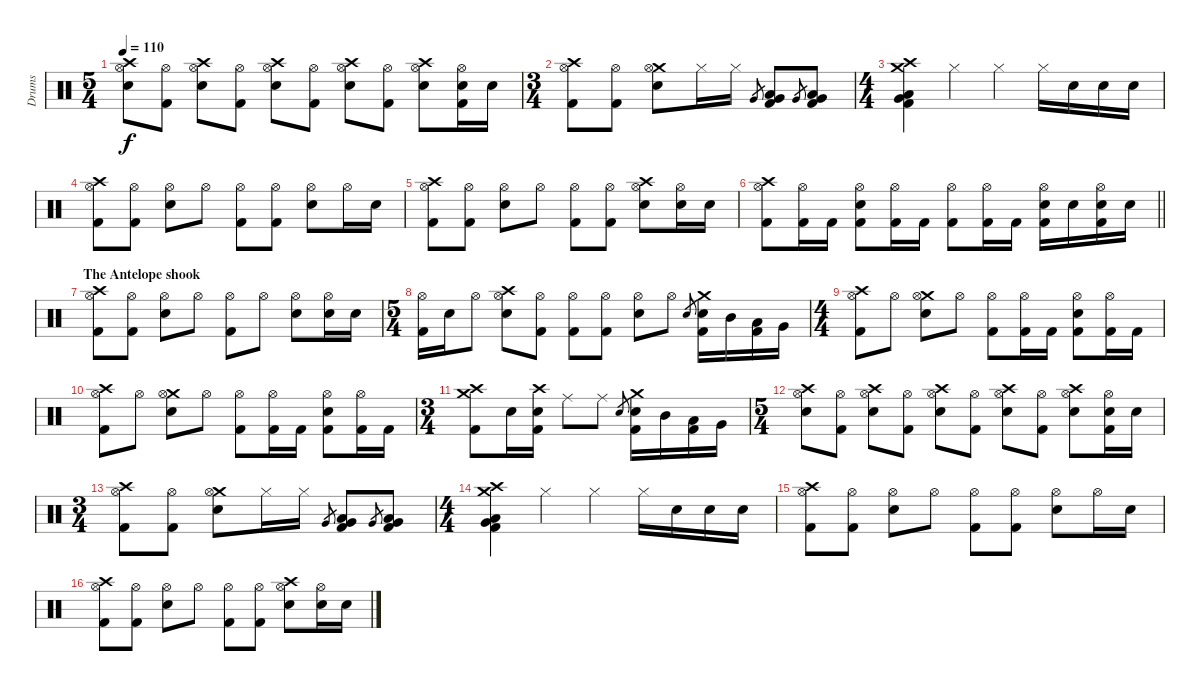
\track ("Drums" "Drums") {instrument percussion}
\staff {score}
\articulation defaults
\ts (5 4)
\tempo 110
\clef neutral
\ks c
("Crash high (hit)" "Hi-Hat (open)" "Snare (hit) 2").8{dy f} ("Hi-Hat (open)" "Kick (hit) 2").8 ("Crash high (hit)" "Hi-Hat (open)" "Snare (hit) 2").8 ("Hi-Hat (open)" "Kick (hit) 2").8 ("Crash high (hit)" "Hi-Hat (open)" "Snare (hit) 2").8 ("Hi-Hat (open)" "Kick (hit) 2").8 ("Crash high (hit)" "Hi-Hat (open)" "Snare (hit) 2").8 ("Hi-Hat (open)" "Kick (hit) 2").8 ("Crash high (hit)" "Hi-Hat (open)" "Snare (hit) 2").8 ("Hi-Hat (open)" "Snare (hit) 2" "Kick (hit) 2").16 "Snare (hit) 2".16 |
\ts (3 4)
("Crash high (hit)" "Hi-Hat (open)" "Kick (hit) 2").8 ("Hi-Hat (open)" "Kick (hit) 2").8 ("Crash medium (hit)" "Hi-Hat (open)" "Snare (hit) 2").8 "Hi-Hat (closed)".16 "Hi-Hat (closed)".16 "Very Low Tom (hit)".8{gr} ("Low Tom (hit)" "Very Low Tom (hit)" "Kick (hit) 2").8 "Very Low Tom (hit)".8{gr} ("Low Tom (hit)" "Very Low Tom (hit)" "Kick (hit) 2").8 |
\ts (4 4)
("Crash high (hit)" "Crash medium (hit)" "Low Tom (hit)" "Very Low Tom (hit)" "Kick (hit) 2").4 "Hi-Hat (closed)".4 "Hi-Hat (closed)".4 "Hi-Hat (closed)".16 "Snare (hit) 2".16 "Snare (hit) 2".16 "Snare (hit) 2".16 |
("Crash high (hit)" "Hi-Hat (open)" "Kick (hit) 2").8 ("Hi-Hat (open)" "Kick (hit) 2").8 ("Hi-Hat (open)" "Snare (hit) 2").8 "Hi-Hat (open)".8 ("Hi-Hat (open)" "Kick (hit) 2").8 ("Hi-Hat (open)" "Kick (hit) 2").8 ("Hi-Hat (open)" "Snare (hit) 2").8 "Hi-Hat (open)".16 "Snare (hit) 2".16 |
("Crash high (hit)" "Hi-Hat (open)" "Kick (hit) 2").8 ("Hi-Hat (open)" "Kick (hit) 2").8 ("Hi-Hat (open)" "Snare (hit) 2").8 "Hi-Hat (open)".8 ("Hi-Hat (open)" "Kick (hit) 2").8 ("Hi-Hat (open)" "Kick (hit) 2").8 ("Crash high (hit)" "Hi-Hat (open)" "Snare (hit) 2").8 ("Hi-Hat (open)" "Snare (hit) 2").16 "Snare (hit) 2".16 |
\barLineRight lightlight
("Crash high (hit)" "Hi-Hat (open)" "Kick (hit) 2").8 ("Hi-Hat (open)" "Kick (hit) 2").16 "Kick (hit) 2".16 ("Hi-Hat (open)" "Snare (hit) 2" "Kick (hit) 2").8 ("Hi-Hat (open)" "Kick (hit) 2").16 "Kick (hit) 2".16 ("Hi-Hat (open)" "Kick (hit) 2").8 ("Hi-Hat (open)" "Kick (hit) 2").16 "Kick (hit) 2".16 ("Hi-Hat (open)" "Snare (hit) 2" "Kick (hit) 2").16 "Snare (hit) 2".16 ("Hi-Hat (open)" "Snare (hit) 2" "Kick (hit) 2").16 "Snare (hit) 2".16 |
\section ("" "The Antelope shook")
("Crash high (hit)" "Hi-Hat (open)" "Kick (hit) 2").8 ("Hi-Hat (open)" "Kick (hit) 2").8 ("Hi-Hat (open)" "Snare (hit) 2").8 "Hi-Hat (open)".8 ("Hi-Hat (open)" "Kick (hit) 2").8 "Hi-Hat (open)".8 ("Hi-Hat (open)" "Snare (hit) 2").8 ("Hi-Hat (open)" "Snare (hit) 2").16 "Snare (hit) 2".16 |
\ts (5 4)
("Hi-Hat (open)" "Kick (hit) 2").16 "Snare (hit) 2".16 "Hi-Hat (open)".8 ("Crash high (hit)" "Hi-Hat (open)" "Snare (hit) 2").8 ("Hi-Hat (open)" "Kick (hit) 2").8 ("Hi-Hat (open)" "Kick (hit) 2").8 ("Hi-Hat (open)" "Kick (hit) 2").8 ("Hi-Hat (open)" "Snare (hit) 2").8 "Hi-Hat (open)".8 "Snare (hit) 2".8{gr} ("Crash medium (hit)" "Snare (hit) 2" "Kick (hit) 2").16 "Mid Tom (hit)".16 ("Low Tom (hit)" "Kick (hit) 2").16 "Very Low Tom (hit)".16 |
\ts (4 4)
("Crash high (hit)" "Hi-Hat (open)" "Kick (hit) 2").8 "Hi-Hat (open)".8 ("Crash medium (hit)" "Hi-Hat (open)" "Snare (hit) 2").8 "Hi-Hat (open)".8 ("Hi-Hat (open)" "Kick (hit) 2").8 ("Hi-Hat (open)" "Kick (hit) 2").16 "Kick (hit) 2".16 ("Hi-Hat (open)" "Snare (hit) 2" "Kick (hit) 2").8 ("Hi-Hat (open)" "Kick (hit) 2").16 "Kick (hit) 2".16 |
("Crash high (hit)" "Hi-Hat (open)" "Kick (hit) 2").8 "Hi-Hat (open)".8 ("Crash medium (hit)" "Hi-Hat (open)" "Snare (hit) 2").8 "Hi-Hat (open)".8 ("Hi-Hat (open)" "Kick (hit) 2").8 ("Hi-Hat (open)" "Kick (hit) 2").16 "Kick (hit) 2".16 ("Hi-Hat (open)" "Snare (hit) 2" "Kick (hit) 2").8 ("Hi-Hat (open)" "Kick (hit) 2").16 "Kick (hit) 2".16 |
\ts (3 4)
("Crash medium (hit)" "Crash high (hit)" "Kick (hit) 2").8 "Snare (hit) 2".16 ("Crash high (hit)" "Snare (hit) 2" "Kick (hit) 2").16 "Ride (middle)".8 "Ride (middle)".8 "Snare (hit) 2".8{gr} ("Crash medium (hit)" "Snare (hit) 2" "Kick (hit) 2").16 "Mid Tom (hit)".16 ("Low Tom (hit)" "Kick (hit) 2").16 "Very Low Tom (hit)".16 |
\ts (5 4)
("Crash high (hit)" "Hi-Hat (open)" "Snare (hit) 2").8 ("Hi-Hat (open)" "Kick (hit) 2").8 ("Crash high (hit)" "Hi-Hat (open)" "Snare (hit) 2").8 ("Hi-Hat (open)" "Kick (hit) 2").8 ("Crash high (hit)" "Hi-Hat (open)" "Snare (hit) 2").8 ("Hi-Hat (open)" "Kick (hit) 2").8 ("Crash high (hit)" "Hi-Hat (open)" "Snare (hit) 2").8 ("Hi-Hat (open)" "Kick (hit) 2").8 ("Crash high (hit)" "Hi-Hat (open)" "Snare (hit) 2").8 ("Hi-Hat (open)" "Snare (hit) 2" "Kick (hit) 2").16 "Snare (hit) 2".16 |
\ts (3 4)
("Crash high (hit)" "Hi-Hat (open)" "Kick (hit) 2").8 ("Hi-Hat (open)" "Kick (hit) 2").8 ("Crash medium (hit)" "Hi-Hat (open)" "Snare (hit) 2").8 "Hi-Hat (closed)".16 "Hi-Hat (closed)".16 "Very Low Tom (hit)".8{gr} ("Low Tom (hit)" "Very Low Tom (hit)" "Kick (hit) 2").8 "Very Low Tom (hit)".8{gr} ("Low Tom (hit)" "Very Low Tom (hit)" "Kick (hit) 2").8 |
\ts (4 4)
("Crash high (hit)" "Crash medium (hit)" "Low Tom (hit)" "Very Low Tom (hit)" "Kick (hit) 2").4 "Hi-Hat (closed)".4 "Hi-Hat (closed)".4 "Hi-Hat (closed)".16 "Snare (hit) 2".16 "Snare (hit) 2".16 "Snare (hit) 2".16 |
("Crash high (hit)" "Hi-Hat (open)" "Kick (hit) 2").8 ("Hi-Hat (open)" "Kick (hit) 2").8 ("Hi-Hat (open)" "Snare (hit) 2").8 "Hi-Hat (open)".8 ("Hi-Hat (open)" "Kick (hit) 2").8 ("Hi-Hat (open)" "Kick (hit) 2").8 ("Hi-Hat (open)" "Snare (hit) 2").8 "Hi-Hat (open)".16 "Snare (hit) 2".16 |
("Crash high (hit)" "Hi-Hat (open)" "Kick (hit) 2").8 ("Hi-Hat (open)" "Kick (hit) 2").8 ("Hi-Hat (open)" "Snare (hit) 2").8 "Hi-Hat (open)".8 ("Hi-Hat (open)" "Kick (hit) 2").8 ("Hi-Hat (open)" "Kick (hit) 2").8 ("Crash high (hit)" "Hi-Hat (open)" "Snare (hit) 2").8 ("Hi-Hat (open)" "Snare (hit) 2").16 "Snare (hit) 2".16
